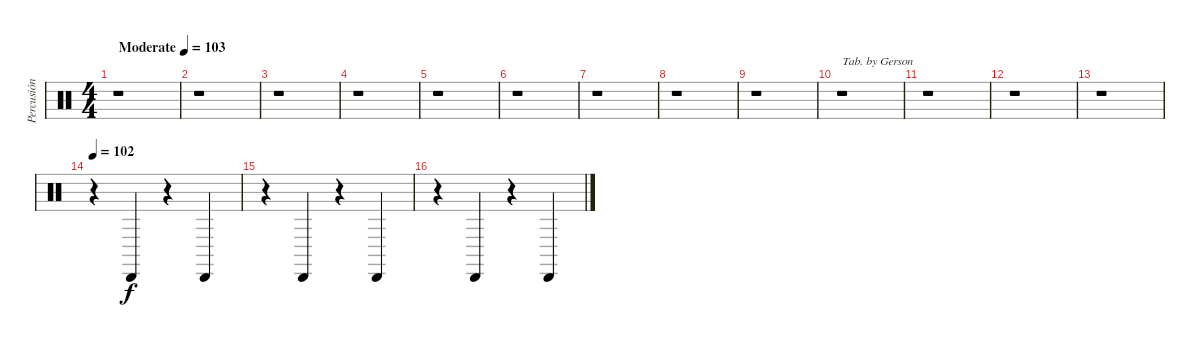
\track ("Percusión" "Percusión") {instrument percussion}
\staff {score}
\articulation defaults
\ts (4 4)
\tempo (103 "Moderate")
\clef neutral
\ks c
r.1{dy f} |
r.1 |
r.1 |
r.1 |
r.1 |
r.1 |
r.1 |
r.1 |
r.1 |
r.1{txt "Tab. by Gerson"} |
r.1 |
r.1 |
r.1 |
\tempo 102
r.4{volume 5} "Cabasa (hit)".4 r.4 "Cabasa (hit)".4 |
r.4 "Cabasa (hit)".4 r.4 "Cabasa (hit)".4 |
r.4 "Cabasa (hit)".4 r.4 "Cabasa (hit)".4
